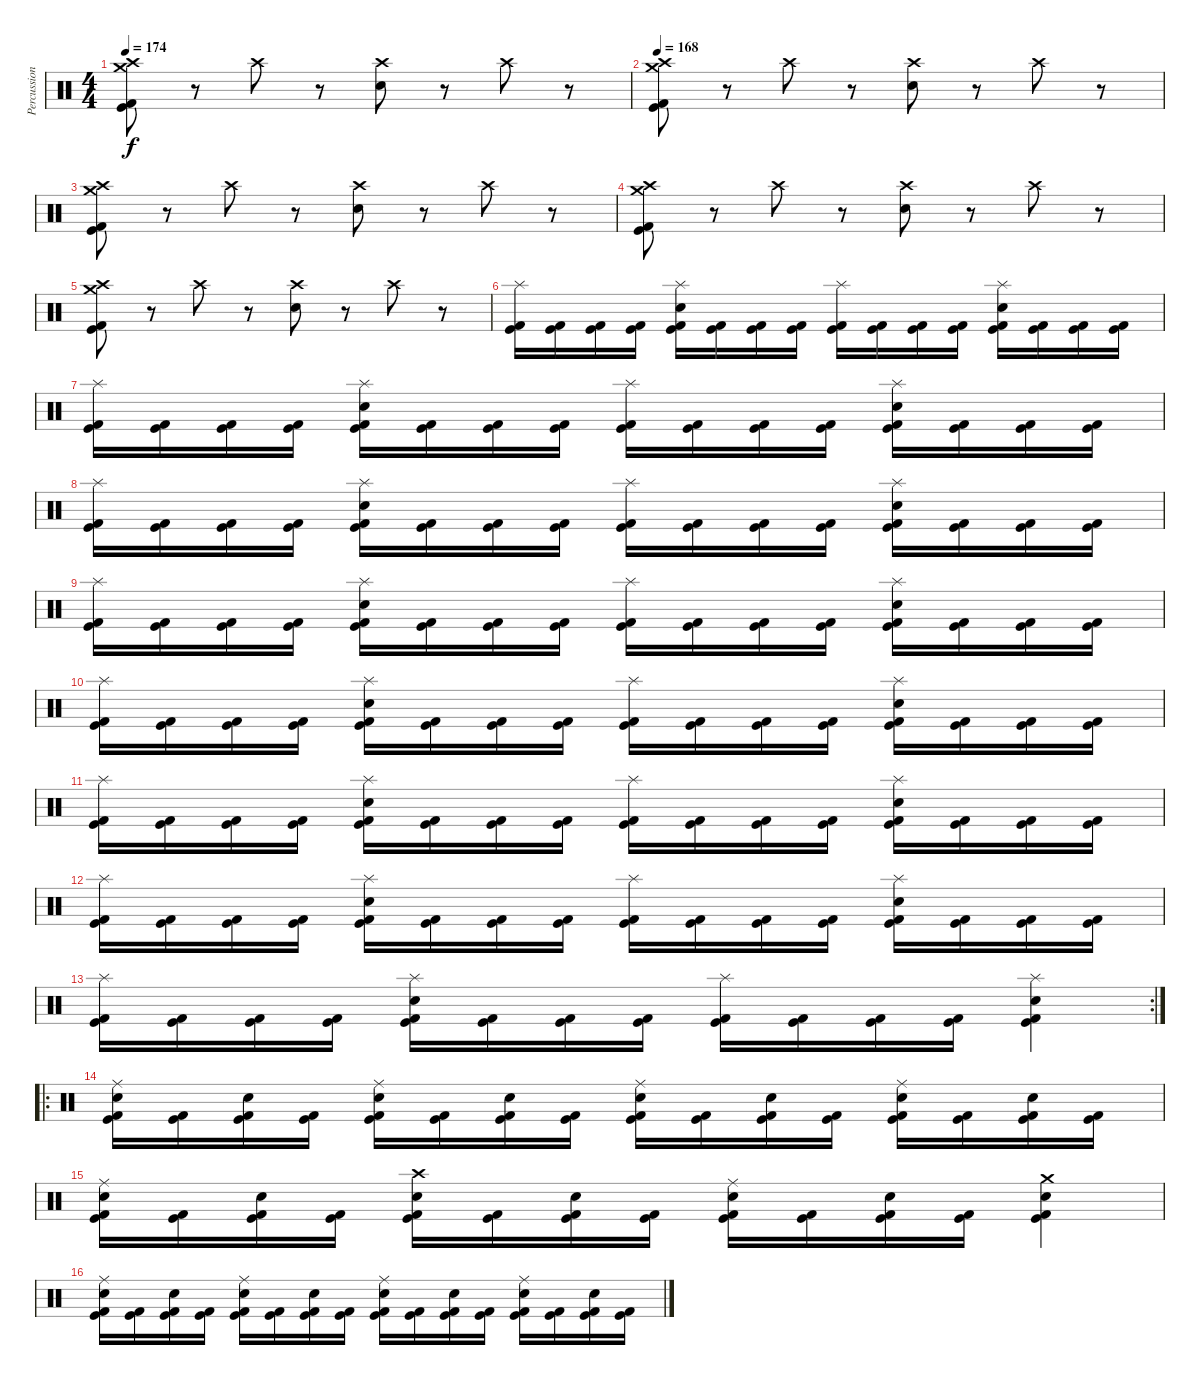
\track ("Percussion" "Percussion") {instrument percussion}
\staff {score}
\articulation defaults
\ts (4 4)
\tempo 174
\clef neutral
\ks c
("Crash high (hit)" "Crash medium (hit)" "Kick (hit) 2" "Kick (hit)").8{dy f} r.8 "Crash high (hit)".8 r.8 ("Crash high (hit)" "Electric Snare (hit)").8 r.8 "Crash high (hit)".8 r.8 |
\tempo 168
("Crash high (hit)" "Crash medium (hit)" "Kick (hit) 2" "Kick (hit)").8 r.8 "Crash high (hit)".8 r.8 ("Crash high (hit)" "Electric Snare (hit)").8 r.8 "Crash high (hit)".8 r.8 |
("Crash high (hit)" "Crash medium (hit)" "Kick (hit) 2" "Kick (hit)").8 r.8 "Crash high (hit)".8 r.8 ("Crash high (hit)" "Electric Snare (hit)").8 r.8 "Crash high (hit)".8 r.8 |
("Crash high (hit)" "Crash medium (hit)" "Kick (hit) 2" "Kick (hit)").8 r.8 "Crash high (hit)".8 r.8 ("Crash high (hit)" "Electric Snare (hit)").8 r.8 "Crash high (hit)".8 r.8 |
("Crash high (hit)" "Crash medium (hit)" "Kick (hit) 2" "Kick (hit)").8 r.8 "Crash high (hit)".8 r.8 ("Crash high (hit)" "Electric Snare (hit)").8 r.8 "Crash high (hit)".8 r.8 |
("Splash (hit)" "Kick (hit) 2" "Kick (hit)").16 ("Kick (hit) 2" "Kick (hit)").16 ("Kick (hit) 2" "Kick (hit)").16 ("Kick (hit) 2" "Kick (hit)").16 ("Splash (hit)" "Electric Snare (hit)" "Kick (hit) 2" "Kick (hit)").16 ("Kick (hit) 2" "Kick (hit)").16 ("Kick (hit) 2" "Kick (hit)").16 ("Kick (hit) 2" "Kick (hit)").16 ("Splash (hit)" "Kick (hit) 2" "Kick (hit)").16 ("Kick (hit) 2" "Kick (hit)").16 ("Kick (hit) 2" "Kick (hit)").16 ("Kick (hit) 2" "Kick (hit)").16 ("Splash (hit)" "Electric Snare (hit)" "Kick (hit) 2" "Kick (hit)").16 ("Kick (hit) 2" "Kick (hit)").16 ("Kick (hit) 2" "Kick (hit)").16 ("Kick (hit) 2" "Kick (hit)").16 |
("Splash (hit)" "Kick (hit) 2" "Kick (hit)").16 ("Kick (hit) 2" "Kick (hit)").16 ("Kick (hit) 2" "Kick (hit)").16 ("Kick (hit) 2" "Kick (hit)").16 ("Splash (hit)" "Electric Snare (hit)" "Kick (hit) 2" "Kick (hit)").16 ("Kick (hit) 2" "Kick (hit)").16 ("Kick (hit) 2" "Kick (hit)").16 ("Kick (hit) 2" "Kick (hit)").16 ("Splash (hit)" "Kick (hit) 2" "Kick (hit)").16 ("Kick (hit) 2" "Kick (hit)").16 ("Kick (hit) 2" "Kick (hit)").16 ("Kick (hit) 2" "Kick (hit)").16 ("Splash (hit)" "Electric Snare (hit)" "Kick (hit) 2" "Kick (hit)").16 ("Kick (hit) 2" "Kick (hit)").16 ("Kick (hit) 2" "Kick (hit)").16 ("Kick (hit) 2" "Kick (hit)").16 |
("Splash (hit)" "Kick (hit) 2" "Kick (hit)").16 ("Kick (hit) 2" "Kick (hit)").16 ("Kick (hit) 2" "Kick (hit)").16 ("Kick (hit) 2" "Kick (hit)").16 ("Splash (hit)" "Electric Snare (hit)" "Kick (hit) 2" "Kick (hit)").16 ("Kick (hit) 2" "Kick (hit)").16 ("Kick (hit) 2" "Kick (hit)").16 ("Kick (hit) 2" "Kick (hit)").16 ("Splash (hit)" "Kick (hit) 2" "Kick (hit)").16 ("Kick (hit) 2" "Kick (hit)").16 ("Kick (hit) 2" "Kick (hit)").16 ("Kick (hit) 2" "Kick (hit)").16 ("Splash (hit)" "Electric Snare (hit)" "Kick (hit) 2" "Kick (hit)").16 ("Kick (hit) 2" "Kick (hit)").16 ("Kick (hit) 2" "Kick (hit)").16 ("Kick (hit) 2" "Kick (hit)").16 |
("Splash (hit)" "Kick (hit) 2" "Kick (hit)").16 ("Kick (hit) 2" "Kick (hit)").16 ("Kick (hit) 2" "Kick (hit)").16 ("Kick (hit) 2" "Kick (hit)").16 ("Splash (hit)" "Electric Snare (hit)" "Kick (hit) 2" "Kick (hit)").16 ("Kick (hit) 2" "Kick (hit)").16 ("Kick (hit) 2" "Kick (hit)").16 ("Kick (hit) 2" "Kick (hit)").16 ("Splash (hit)" "Kick (hit) 2" "Kick (hit)").16 ("Kick (hit) 2" "Kick (hit)").16 ("Kick (hit) 2" "Kick (hit)").16 ("Kick (hit) 2" "Kick (hit)").16 ("Splash (hit)" "Electric Snare (hit)" "Kick (hit) 2" "Kick (hit)").16 ("Kick (hit) 2" "Kick (hit)").16 ("Kick (hit) 2" "Kick (hit)").16 ("Kick (hit) 2" "Kick (hit)").16 |
("Splash (hit)" "Kick (hit) 2" "Kick (hit)").16 ("Kick (hit) 2" "Kick (hit)").16 ("Kick (hit) 2" "Kick (hit)").16 ("Kick (hit) 2" "Kick (hit)").16 ("Splash (hit)" "Electric Snare (hit)" "Kick (hit) 2" "Kick (hit)").16 ("Kick (hit) 2" "Kick (hit)").16 ("Kick (hit) 2" "Kick (hit)").16 ("Kick (hit) 2" "Kick (hit)").16 ("Splash (hit)" "Kick (hit) 2" "Kick (hit)").16 ("Kick (hit) 2" "Kick (hit)").16 ("Kick (hit) 2" "Kick (hit)").16 ("Kick (hit) 2" "Kick (hit)").16 ("Splash (hit)" "Electric Snare (hit)" "Kick (hit) 2" "Kick (hit)").16 ("Kick (hit) 2" "Kick (hit)").16 ("Kick (hit) 2" "Kick (hit)").16 ("Kick (hit) 2" "Kick (hit)").16 |
("Splash (hit)" "Kick (hit) 2" "Kick (hit)").16 ("Kick (hit) 2" "Kick (hit)").16 ("Kick (hit) 2" "Kick (hit)").16 ("Kick (hit) 2" "Kick (hit)").16 ("Splash (hit)" "Electric Snare (hit)" "Kick (hit) 2" "Kick (hit)").16 ("Kick (hit) 2" "Kick (hit)").16 ("Kick (hit) 2" "Kick (hit)").16 ("Kick (hit) 2" "Kick (hit)").16 ("Splash (hit)" "Kick (hit) 2" "Kick (hit)").16 ("Kick (hit) 2" "Kick (hit)").16 ("Kick (hit) 2" "Kick (hit)").16 ("Kick (hit) 2" "Kick (hit)").16 ("Splash (hit)" "Electric Snare (hit)" "Kick (hit) 2" "Kick (hit)").16 ("Kick (hit) 2" "Kick (hit)").16 ("Kick (hit) 2" "Kick (hit)").16 ("Kick (hit) 2" "Kick (hit)").16 |
("Splash (hit)" "Kick (hit) 2" "Kick (hit)").16 ("Kick (hit) 2" "Kick (hit)").16 ("Kick (hit) 2" "Kick (hit)").16 ("Kick (hit) 2" "Kick (hit)").16 ("Splash (hit)" "Electric Snare (hit)" "Kick (hit) 2" "Kick (hit)").16 ("Kick (hit) 2" "Kick (hit)").16 ("Kick (hit) 2" "Kick (hit)").16 ("Kick (hit) 2" "Kick (hit)").16 ("Splash (hit)" "Kick (hit) 2" "Kick (hit)").16 ("Kick (hit) 2" "Kick (hit)").16 ("Kick (hit) 2" "Kick (hit)").16 ("Kick (hit) 2" "Kick (hit)").16 ("Splash (hit)" "Electric Snare (hit)" "Kick (hit) 2" "Kick (hit)").16 ("Kick (hit) 2" "Kick (hit)").16 ("Kick (hit) 2" "Kick (hit)").16 ("Kick (hit) 2" "Kick (hit)").16 |
\rc 2
("Splash (hit)" "Kick (hit) 2" "Kick (hit)").16 ("Kick (hit) 2" "Kick (hit)").16 ("Kick (hit) 2" "Kick (hit)").16 ("Kick (hit) 2" "Kick (hit)").16 ("Splash (hit)" "Electric Snare (hit)" "Kick (hit) 2" "Kick (hit)").16 ("Kick (hit) 2" "Kick (hit)").16 ("Kick (hit) 2" "Kick (hit)").16 ("Kick (hit) 2" "Kick (hit)").16 ("Splash (hit)" "Kick (hit) 2" "Kick (hit)").16 ("Kick (hit) 2" "Kick (hit)").16 ("Kick (hit) 2" "Kick (hit)").16 ("Kick (hit) 2" "Kick (hit)").16 ("Splash (hit)" "Electric Snare (hit)" "Kick (hit) 2" "Kick (hit)").4 |
\ro
("Ride (middle)" "Electric Snare (hit)" "Kick (hit) 2" "Kick (hit)").16 ("Kick (hit) 2" "Kick (hit)").16 ("Electric Snare (hit)" "Kick (hit) 2" "Kick (hit)").16 ("Kick (hit) 2" "Kick (hit)").16 ("Ride (middle)" "Electric Snare (hit)" "Kick (hit) 2" "Kick (hit)").16 ("Kick (hit) 2" "Kick (hit)").16 ("Electric Snare (hit)" "Kick (hit) 2" "Kick (hit)").16 ("Kick (hit) 2" "Kick (hit)").16 ("Ride (middle)" "Electric Snare (hit)" "Kick (hit) 2" "Kick (hit)").16 ("Kick (hit) 2" "Kick (hit)").16 ("Electric Snare (hit)" "Kick (hit) 2" "Kick (hit)").16 ("Kick (hit) 2" "Kick (hit)").16 ("Ride (middle)" "Electric Snare (hit)" "Kick (hit) 2" "Kick (hit)").16 ("Kick (hit) 2" "Kick (hit)").16 ("Electric Snare (hit)" "Kick (hit) 2" "Kick (hit)").16 ("Kick (hit) 2" "Kick (hit)").16 |
("Ride (middle)" "Electric Snare (hit)" "Kick (hit) 2" "Kick (hit)").16 ("Kick (hit) 2" "Kick (hit)").16 ("Electric Snare (hit)" "Kick (hit) 2" "Kick (hit)").16 ("Kick (hit) 2" "Kick (hit)").16 ("Crash high (hit)" "Electric Snare (hit)" "Kick (hit) 2" "Kick (hit)").16 ("Kick (hit) 2" "Kick (hit)").16 ("Electric Snare (hit)" "Kick (hit) 2" "Kick (hit)").16 ("Kick (hit) 2" "Kick (hit)").16 ("Ride (middle)" "Electric Snare (hit)" "Kick (hit) 2" "Kick (hit)").16 ("Kick (hit) 2" "Kick (hit)").16 ("Electric Snare (hit)" "Kick (hit) 2" "Kick (hit)").16 ("Kick (hit) 2" "Kick (hit)").16 ("Crash medium (hit)" "Electric Snare (hit)" "Kick (hit) 2" "Kick (hit)").4 |
("Ride (middle)" "Electric Snare (hit)" "Kick (hit) 2" "Kick (hit)").16 ("Kick (hit) 2" "Kick (hit)").16 ("Electric Snare (hit)" "Kick (hit) 2" "Kick (hit)").16 ("Kick (hit) 2" "Kick (hit)").16 ("Ride (middle)" "Electric Snare (hit)" "Kick (hit) 2" "Kick (hit)").16 ("Kick (hit) 2" "Kick (hit)").16 ("Electric Snare (hit)" "Kick (hit) 2" "Kick (hit)").16 ("Kick (hit) 2" "Kick (hit)").16 ("Ride (middle)" "Electric Snare (hit)" "Kick (hit) 2" "Kick (hit)").16 ("Kick (hit) 2" "Kick (hit)").16 ("Electric Snare (hit)" "Kick (hit) 2" "Kick (hit)").16 ("Kick (hit) 2" "Kick (hit)").16 ("Ride (middle)" "Electric Snare (hit)" "Kick (hit) 2" "Kick (hit)").16 ("Kick (hit) 2" "Kick (hit)").16 ("Electric Snare (hit)" "Kick (hit) 2" "Kick (hit)").16 ("Kick (hit) 2" "Kick (hit)").16
